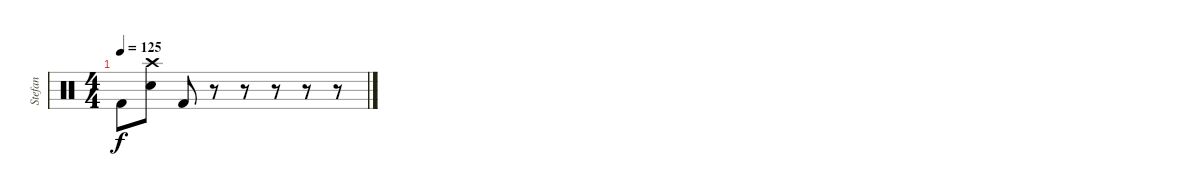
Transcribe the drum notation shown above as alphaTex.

\track ("Stefan" "Stefan") {instrument percussion}
\staff {score}
\articulation defaults
\ts (4 4)
\tempo 125
\clef neutral
\ks c "Kick (hit) 2".8{dy f}
("Crash high (hit)" "Electric Snare (hit)").8 "Kick (hit) 2".8 r.8 r.8 r.8 r.8 r.8
